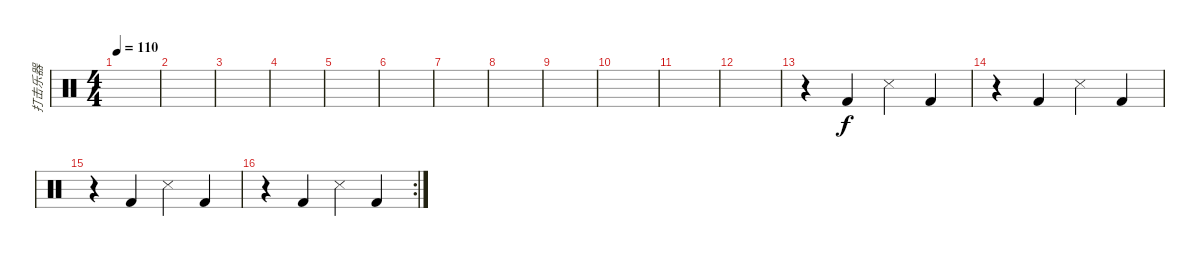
\track ("打击乐器" "打击乐器") {instrument percussion}
\staff {score}
\articulation defaults
\ts (4 4)
\tempo 110
\clef neutral
\ks c
|
|
|
|
|
|
|
|
|
|
|
|
r.4 "Kick (hit) 2".4 "Snare (side stick) 3".4 "Kick (hit) 2".4 |
r.4 "Kick (hit) 2".4 "Snare (side stick) 3".4 "Kick (hit) 2".4 |
r.4 "Kick (hit) 2".4 "Snare (side stick) 3".4 "Kick (hit) 2".4 |
\rc 2
r.4 "Kick (hit) 2".4 "Snare (side stick) 3".4 "Kick (hit) 2".4
